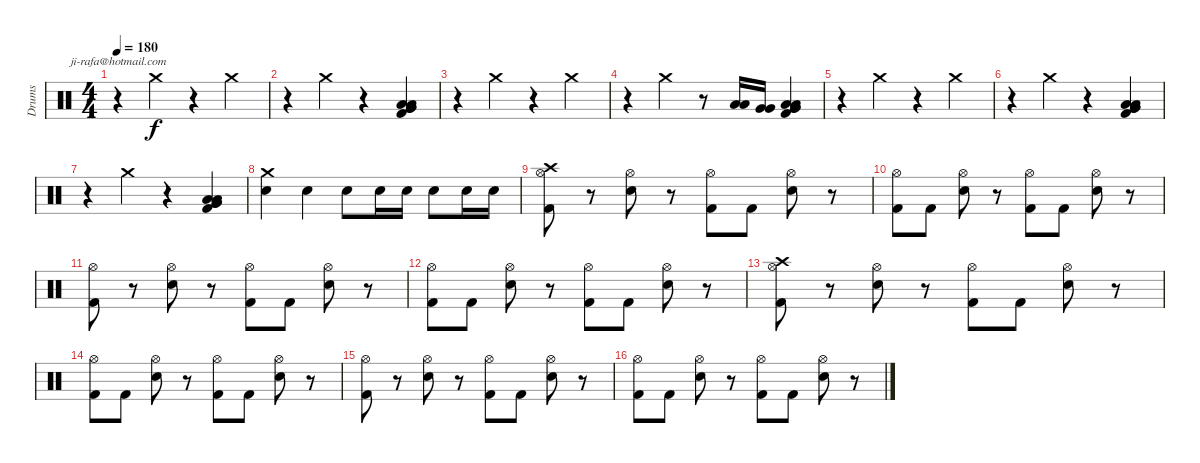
\track ("Drums" "Drums") {instrument percussion}
\staff {score}
\articulation defaults
\chord ("ji-rafa@hotmail.com")
\ts (4 4)
\tempo 180
\clef neutral
\ks c
r.4{ch "ji-rafa@hotmail.com" dy f} "Crash medium (hit)".4 r.4 "Crash medium (hit)".4 |
r.4 "Crash medium (hit)".4 r.4 ("Kick (hit) 2" "Low Tom (hit)" "Low Tom (hit)" "Very Low Tom (hit)" "Very Low Tom (hit)").4 |
r.4 "Crash medium (hit)".4 r.4 "Crash medium (hit)".4 |
r.4 "Crash medium (hit)".4 r.8 ("Low Tom (hit)" "Low Tom (hit)").16 ("Very Low Tom (hit)" "Very Low Tom (hit)").16 ("Kick (hit) 2" "Low Tom (hit)" "Very Low Tom (hit)" "Low Tom (hit)" "Very Low Tom (hit)").4 |
r.4 "Crash medium (hit)".4 r.4 "Crash medium (hit)".4 |
r.4 "Crash medium (hit)".4 r.4 ("Kick (hit) 2" "Low Tom (hit)" "Low Tom (hit)" "Very Low Tom (hit)" "Very Low Tom (hit)").4 |
r.4 "Crash medium (hit)".4 r.4 ("Kick (hit) 2" "Low Tom (hit)" "Low Tom (hit)" "Very Low Tom (hit)" "Very Low Tom (hit)").4 |
("Crash medium (hit)" "Snare (hit) 2").4 "Snare (hit) 2".4 "Snare (hit) 2".8 "Snare (hit) 2".16 "Snare (hit) 2".16 "Snare (hit) 2".8 "Snare (hit) 2".16 "Snare (hit) 2".16 |
("Crash high (hit)" "Hi-Hat (open)" "Kick (hit) 2").8 r.8 ("Hi-Hat (open)" "Snare (hit) 2").8 r.8 ("Hi-Hat (open)" "Kick (hit) 2").8 "Kick (hit) 2".8 ("Hi-Hat (open)" "Snare (hit) 2").8 r.8 |
("Hi-Hat (open)" "Kick (hit) 2").8 "Kick (hit) 2".8 ("Hi-Hat (open)" "Snare (hit) 2").8 r.8 ("Hi-Hat (open)" "Kick (hit) 2").8 "Kick (hit) 2".8 ("Hi-Hat (open)" "Snare (hit) 2").8 r.8 |
("Hi-Hat (open)" "Kick (hit) 2").8 r.8 ("Hi-Hat (open)" "Snare (hit) 2").8 r.8 ("Hi-Hat (open)" "Kick (hit) 2").8 "Kick (hit) 2".8 ("Hi-Hat (open)" "Snare (hit) 2").8 r.8 |
("Hi-Hat (open)" "Kick (hit) 2").8 "Kick (hit) 2".8 ("Hi-Hat (open)" "Snare (hit) 2").8 r.8 ("Hi-Hat (open)" "Kick (hit) 2").8 "Kick (hit) 2".8 ("Hi-Hat (open)" "Snare (hit) 2").8 r.8 |
("Crash high (hit)" "Hi-Hat (open)" "Kick (hit) 2").8 r.8 ("Hi-Hat (open)" "Snare (hit) 2").8 r.8 ("Hi-Hat (open)" "Kick (hit) 2").8 "Kick (hit) 2".8 ("Hi-Hat (open)" "Snare (hit) 2").8 r.8 |
("Hi-Hat (open)" "Kick (hit) 2").8 "Kick (hit) 2".8 ("Hi-Hat (open)" "Snare (hit) 2").8 r.8 ("Hi-Hat (open)" "Kick (hit) 2").8 "Kick (hit) 2".8 ("Hi-Hat (open)" "Snare (hit) 2").8 r.8 |
("Hi-Hat (open)" "Kick (hit) 2").8 r.8 ("Hi-Hat (open)" "Snare (hit) 2").8 r.8 ("Hi-Hat (open)" "Kick (hit) 2").8 "Kick (hit) 2".8 ("Hi-Hat (open)" "Snare (hit) 2").8 r.8 |
("Hi-Hat (open)" "Kick (hit) 2").8 "Kick (hit) 2".8 ("Hi-Hat (open)" "Snare (hit) 2").8 r.8 ("Hi-Hat (open)" "Kick (hit) 2").8 "Kick (hit) 2".8 ("Hi-Hat (open)" "Snare (hit) 2").8 r.8
